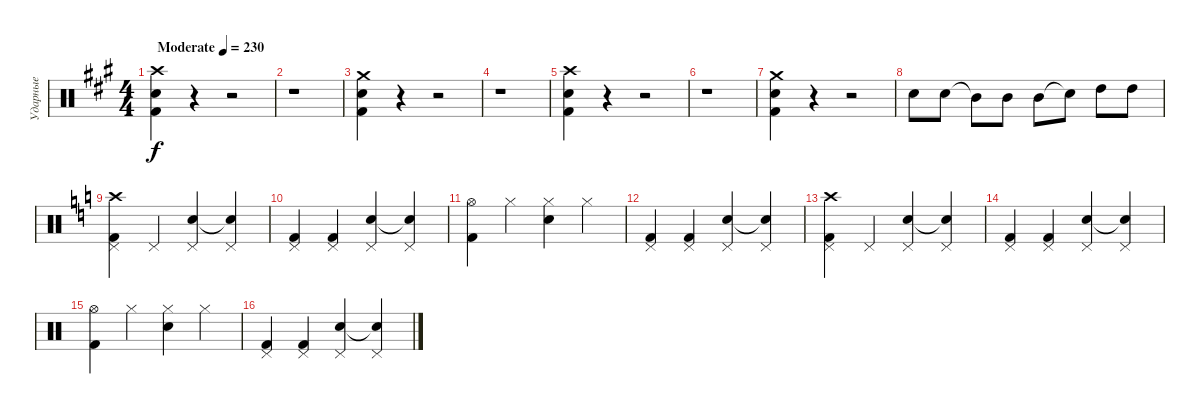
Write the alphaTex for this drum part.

\track ("Ударные" "Ударные") {instrument percussion}
\staff {score}
\articulation defaults
\ts (4 4)
\tempo (230 "Moderate")
\clef neutral
\ks a
("Crash high (hit)" "Electric Snare (hit)" "Kick (hit) 2").4{dy f} r.4 r.2 |
r.1 |
("Crash medium (hit)" "Kick (hit) 2" "Electric Snare (hit)").4 r.4 r.2 |
r.1 |
("Crash high (hit)" "Electric Snare (hit)" "Kick (hit) 2").4 r.4 r.2 |
r.1 |
("Crash medium (hit)" "Kick (hit) 2" "Electric Snare (hit)").4 r.4 r.2 |
"Electric Snare (hit)".8 "Electric Snare (hit)".8 "Mid Tom (hit)"{t}.8 "Mid Tom (hit)".8 "Mid Tom (hit)".8 "Snare (hit)"{t}.8 "High Tom (hit)".8 "High Tom (hit)".8 |
\ks c
("Pedal Hi-Hat (hit)" "Crash high (hit)" "Kick (hit) 2").4 "Pedal Hi-Hat (hit)".4 ("Pedal Hi-Hat (hit)" "Electric Snare (hit)").4 ("Pedal Hi-Hat (hit)" "Electric Snare (hit)"{t}).4 |
("Pedal Hi-Hat (hit)" "Kick (hit) 2").4 ("Pedal Hi-Hat (hit)" "Kick (hit) 2").4 ("Pedal Hi-Hat (hit)" "Electric Snare (hit)").4 ("Pedal Hi-Hat (hit)" "Electric Snare (hit)"{t}).4 |
("Hi-Hat (open)" "Kick (hit) 2").4 "Hi-Hat (closed)".4 ("Hi-Hat (closed)" "Electric Snare (hit)").4 "Hi-Hat (closed)".4 |
("Pedal Hi-Hat (hit)" "Kick (hit) 2").4 ("Pedal Hi-Hat (hit)" "Kick (hit) 2").4 ("Pedal Hi-Hat (hit)" "Electric Snare (hit)").4 ("Pedal Hi-Hat (hit)" "Electric Snare (hit)"{t}).4 |
("Pedal Hi-Hat (hit)" "Crash high (hit)" "Kick (hit) 2").4 "Pedal Hi-Hat (hit)".4 ("Pedal Hi-Hat (hit)" "Electric Snare (hit)").4 ("Pedal Hi-Hat (hit)" "Electric Snare (hit)"{t}).4 |
("Pedal Hi-Hat (hit)" "Kick (hit) 2").4 ("Pedal Hi-Hat (hit)" "Kick (hit) 2").4 ("Pedal Hi-Hat (hit)" "Electric Snare (hit)").4 ("Pedal Hi-Hat (hit)" "Electric Snare (hit)"{t}).4 |
("Hi-Hat (open)" "Kick (hit) 2").4 "Hi-Hat (closed)".4 ("Hi-Hat (closed)" "Electric Snare (hit)").4 "Hi-Hat (closed)".4 |
("Pedal Hi-Hat (hit)" "Kick (hit) 2").4 ("Pedal Hi-Hat (hit)" "Kick (hit) 2").4 ("Pedal Hi-Hat (hit)" "Electric Snare (hit)").4 ("Pedal Hi-Hat (hit)" "Electric Snare (hit)"{t}).4
